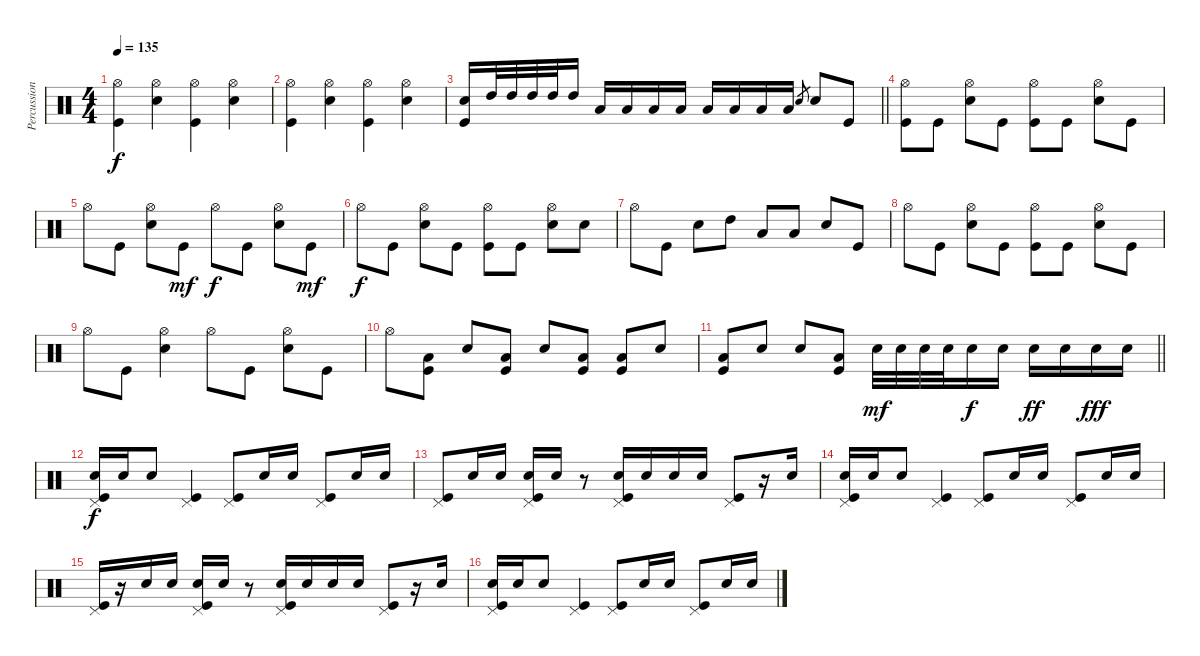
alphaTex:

\track ("Percussion" "Percussion") {instrument percussion}
\staff {score}
\articulation defaults
\ts (4 4)
\tempo 135
\clef neutral
\ks c
("Hi-Hat (open)" "Kick (hit)").4{dy f} ("Hi-Hat (open)" "Electric Snare (hit)").4 ("Hi-Hat (open)" "Kick (hit)").4 ("Hi-Hat (open)" "Electric Snare (hit)").4 |
("Hi-Hat (open)" "Kick (hit)").4 ("Hi-Hat (open)" "Electric Snare (hit)").4 ("Hi-Hat (open)" "Kick (hit)").4 ("Hi-Hat (open)" "Electric Snare (hit)").4 |
\barLineRight lightlight
("Electric Snare (hit)" "Kick (hit)").16 "High Tom (hit)".32 "High Tom (hit)".32 "High Tom (hit)".32 "High Tom (hit)".32 "High Tom (hit)".16 "Low Tom (hit)".16 "Low Tom (hit)".16 "Low Tom (hit)".16 "Low Tom (hit)".16 "Low Floor Tom (hit)".16 "Low Floor Tom (hit)".16 "Low Floor Tom (hit)".16 "Low Floor Tom (hit)".16 "Electric Snare (hit)".8{gr} "Electric Snare (hit)".8 "Kick (hit)".8 |
("Hi-Hat (open)" "Kick (hit)").8 "Kick (hit)".8 ("Hi-Hat (open)" "Electric Snare (hit)").8 "Kick (hit)".8 ("Hi-Hat (open)" "Kick (hit)").8 "Kick (hit)".8 ("Hi-Hat (open)" "Electric Snare (hit)").8 "Kick (hit)".8 |
"Hi-Hat (open)".8 "Kick (hit)".8 ("Hi-Hat (open)" "Electric Snare (hit)").8 "Kick (hit)".8{dy mf} "Hi-Hat (open)".8{dy f} "Kick (hit)".8 ("Hi-Hat (open)" "Electric Snare (hit)").8 "Kick (hit)".8{dy mf} |
"Hi-Hat (open)".8{dy f} "Kick (hit)".8 ("Hi-Hat (open)" "Electric Snare (hit)").8 "Kick (hit)".8 ("Hi-Hat (open)" "Kick (hit)").8 "Kick (hit)".8 ("Hi-Hat (open)" "Electric Snare (hit)").8 "Electric Snare (hit)".8 |
"Hi-Hat (open)".8 "Kick (hit)".8 "Electric Snare (hit)".8 "High Tom (hit)".8 "Low Tom (hit)".8 "Low Floor Tom (hit)".8 "Electric Snare (hit)".8 "Kick (hit)".8 |
"Hi-Hat (open)".8 "Kick (hit)".8 ("Hi-Hat (open)" "Electric Snare (hit)").8 "Kick (hit)".8 ("Hi-Hat (open)" "Kick (hit)").8 "Kick (hit)".8 ("Hi-Hat (open)" "Electric Snare (hit)").8 "Kick (hit)".8 |
"Hi-Hat (open)".8 "Kick (hit)".8 ("Hi-Hat (open)" "Electric Snare (hit)").4 "Hi-Hat (open)".8 "Kick (hit)".8 ("Hi-Hat (open)" "Electric Snare (hit)").8 "Kick (hit)".8 |
"Hi-Hat (open)".8 ("Low Tom (hit)" "Kick (hit)").8 "Electric Snare (hit)".8 ("Low Tom (hit)" "Kick (hit)").8 "Electric Snare (hit)".8 ("Low Tom (hit)" "Kick (hit)").8 ("Low Tom (hit)" "Kick (hit)").8 "Electric Snare (hit)".8 |
\barLineRight lightlight
("Low Tom (hit)" "Kick (hit)").8 "Electric Snare (hit)".8 "Electric Snare (hit)".8 ("Low Tom (hit)" "Kick (hit)").8 "Electric Snare (hit)".32{dy mf} "Electric Snare (hit)".32 "Electric Snare (hit)".32 "Electric Snare (hit)".32 "Electric Snare (hit)".16{dy f} "Electric Snare (hit)".16 "Electric Snare (hit)".16{dy ff} "Electric Snare (hit)".16 "Electric Snare (hit)".16{dy fff} "Electric Snare (hit)".16 |
("Pedal Hi-Hat (hit)" "Electric Snare (hit)" "Kick (hit)").16{dy f} "Electric Snare (hit)".16 "Electric Snare (hit)".8 ("Pedal Hi-Hat (hit)" "Kick (hit)").4 ("Pedal Hi-Hat (hit)" "Kick (hit)").8 "Electric Snare (hit)".16 "Electric Snare (hit)".16 ("Pedal Hi-Hat (hit)" "Kick (hit)").8 "Electric Snare (hit)".16 "Electric Snare (hit)".16 |
("Pedal Hi-Hat (hit)" "Kick (hit)").8 "Electric Snare (hit)".16 "Electric Snare (hit)".16 ("Pedal Hi-Hat (hit)" "Electric Snare (hit)" "Kick (hit)").16 "Electric Snare (hit)".16 r.8 ("Pedal Hi-Hat (hit)" "Electric Snare (hit)" "Kick (hit)").16 "Electric Snare (hit)".16 "Electric Snare (hit)".16 "Electric Snare (hit)".16 ("Pedal Hi-Hat (hit)" "Kick (hit)").8 r.16 "Electric Snare (hit)".16 |
("Pedal Hi-Hat (hit)" "Electric Snare (hit)" "Kick (hit)").16 "Electric Snare (hit)".16 "Electric Snare (hit)".8 ("Pedal Hi-Hat (hit)" "Kick (hit)").4 ("Pedal Hi-Hat (hit)" "Kick (hit)").8 "Electric Snare (hit)".16 "Electric Snare (hit)".16 ("Pedal Hi-Hat (hit)" "Kick (hit)").8 "Electric Snare (hit)".16 "Electric Snare (hit)".16 |
("Pedal Hi-Hat (hit)" "Kick (hit)").16 r.16 "Electric Snare (hit)".16 "Electric Snare (hit)".16 ("Pedal Hi-Hat (hit)" "Electric Snare (hit)" "Kick (hit)").16 "Electric Snare (hit)".16 r.8 ("Pedal Hi-Hat (hit)" "Electric Snare (hit)" "Kick (hit)").16 "Electric Snare (hit)".16 "Electric Snare (hit)".16 "Electric Snare (hit)".16 ("Pedal Hi-Hat (hit)" "Kick (hit)").8 r.16 "Electric Snare (hit)".16 |
("Pedal Hi-Hat (hit)" "Electric Snare (hit)" "Kick (hit)").16 "Electric Snare (hit)".16 "Electric Snare (hit)".8 ("Pedal Hi-Hat (hit)" "Kick (hit)").4 ("Pedal Hi-Hat (hit)" "Kick (hit)").8 "Electric Snare (hit)".16 "Electric Snare (hit)".16 ("Pedal Hi-Hat (hit)" "Kick (hit)").8 "Electric Snare (hit)".16 "Electric Snare (hit)".16
